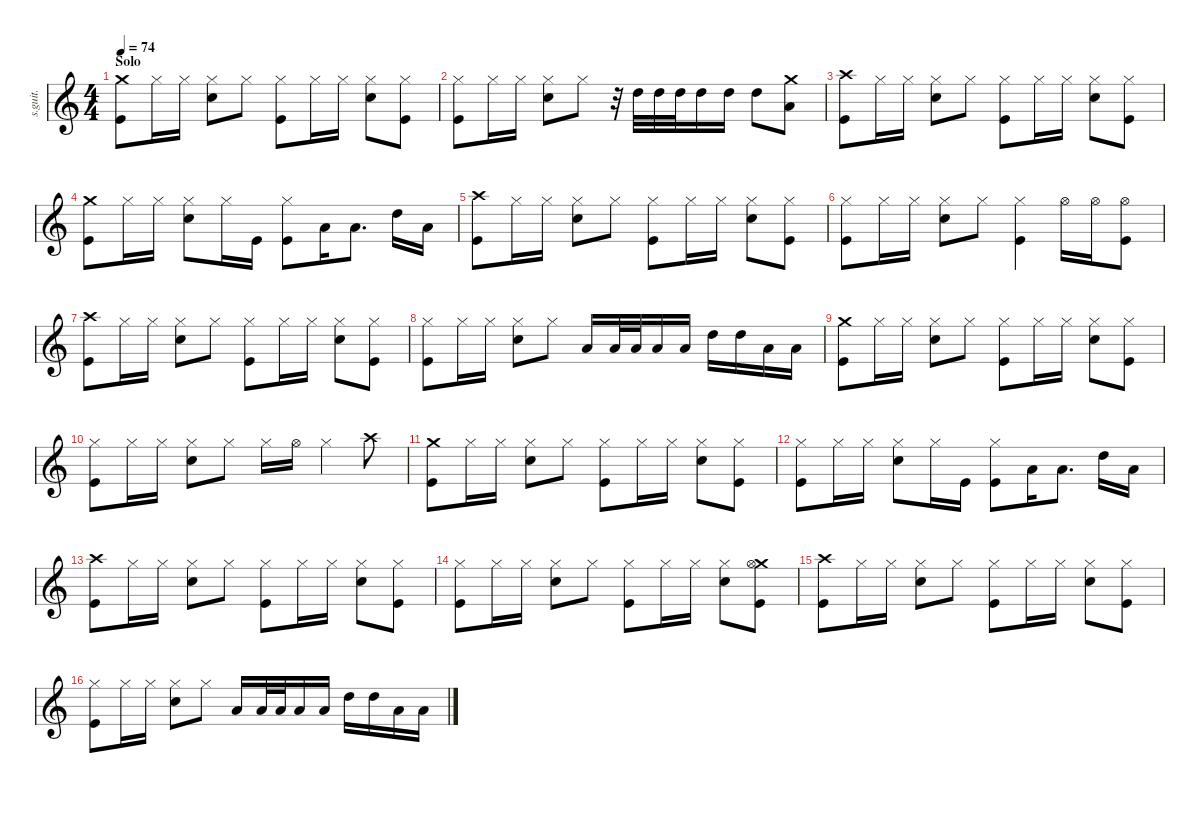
\defaultSystemsLayout 4
\hideDynamics
\bracketExtendMode nobrackets
\track ("Don Henley - Drums" "s.guit.") {instrument percussion}
\staff {score}
\articulation defaults
\ts (4 4)
\section ("" "Solo")
\tempo 74
\clef g2
\ks c
("Crash medium (hit)" "Kick (hit)").8{lyrics (0 "") lyrics (1 "") lyrics (2 "") lyrics (3 "") lyrics (4 "") dy f} "Hi-Hat (closed)".16{lyrics (0 "") lyrics (1 "") lyrics (2 "") lyrics (3 "") lyrics (4 "")} "Hi-Hat (closed)".16{lyrics (0 "") lyrics (1 "") lyrics (2 "") lyrics (3 "") lyrics (4 "")} ("Hi-Hat (closed)" "Snare (hit) 2").8{lyrics (0 "") lyrics (1 "") lyrics (2 "") lyrics (3 "") lyrics (4 "")} "Hi-Hat (closed)".8{lyrics (0 "") lyrics (1 "") lyrics (2 "") lyrics (3 "") lyrics (4 "")} ("Hi-Hat (closed)" "Kick (hit)").8{lyrics (0 "") lyrics (1 "") lyrics (2 "") lyrics (3 "") lyrics (4 "")} "Hi-Hat (closed)".16{lyrics (0 "") lyrics (1 "") lyrics (2 "") lyrics (3 "") lyrics (4 "")} "Hi-Hat (closed)".16{lyrics (0 "") lyrics (1 "") lyrics (2 "") lyrics (3 "") lyrics (4 "")} ("Hi-Hat (closed)" "Snare (hit) 2").8{lyrics (0 "") lyrics (1 "") lyrics (2 "") lyrics (3 "") lyrics (4 "")} ("Hi-Hat (closed)" "Kick (hit)").8{lyrics (0 "") lyrics (1 "") lyrics (2 "") lyrics (3 "") lyrics (4 "")} |
("Hi-Hat (closed)" "Kick (hit)").8{lyrics (0 "") lyrics (1 "") lyrics (2 "") lyrics (3 "") lyrics (4 "")} "Hi-Hat (closed)".16{lyrics (0 "") lyrics (1 "") lyrics (2 "") lyrics (3 "") lyrics (4 "")} "Hi-Hat (closed)".16{lyrics (0 "") lyrics (1 "") lyrics (2 "") lyrics (3 "") lyrics (4 "")} ("Hi-Hat (closed)" "Snare (hit) 2").8{lyrics (0 "") lyrics (1 "") lyrics (2 "") lyrics (3 "") lyrics (4 "")} "Hi-Hat (closed)".8{lyrics (0 "") lyrics (1 "") lyrics (2 "") lyrics (3 "") lyrics (4 "")} r.32 "High Tom (hit)".32{lyrics (0 "") lyrics (1 "") lyrics (2 "") lyrics (3 "") lyrics (4 "")} "High Tom (hit)".32{lyrics (0 "") lyrics (1 "") lyrics (2 "") lyrics (3 "") lyrics (4 "")} "High Tom (hit)".32{lyrics (0 "") lyrics (1 "") lyrics (2 "") lyrics (3 "") lyrics (4 "")} "High Tom (hit)".16{lyrics (0 "") lyrics (1 "") lyrics (2 "") lyrics (3 "") lyrics (4 "")} "High Tom (hit)".16{lyrics (0 "") lyrics (1 "") lyrics (2 "") lyrics (3 "") lyrics (4 "")} "High Tom (hit)".8{lyrics (0 "") lyrics (1 "") lyrics (2 "") lyrics (3 "") lyrics (4 "")} ("Crash medium (hit)" "Low Floor Tom (hit)").8{lyrics (0 "") lyrics (1 "") lyrics (2 "") lyrics (3 "") lyrics (4 "")} |
("Crash high (hit)" "Kick (hit)").8{lyrics (0 "") lyrics (1 "") lyrics (2 "") lyrics (3 "") lyrics (4 "")} "Hi-Hat (closed)".16{lyrics (0 "") lyrics (1 "") lyrics (2 "") lyrics (3 "") lyrics (4 "")} "Hi-Hat (closed)".16{lyrics (0 "") lyrics (1 "") lyrics (2 "") lyrics (3 "") lyrics (4 "")} ("Hi-Hat (closed)" "Snare (hit) 2").8{lyrics (0 "") lyrics (1 "") lyrics (2 "") lyrics (3 "") lyrics (4 "")} "Hi-Hat (closed)".8{lyrics (0 "") lyrics (1 "") lyrics (2 "") lyrics (3 "") lyrics (4 "")} ("Hi-Hat (closed)" "Kick (hit)").8{lyrics (0 "") lyrics (1 "") lyrics (2 "") lyrics (3 "") lyrics (4 "")} "Hi-Hat (closed)".16{lyrics (0 "") lyrics (1 "") lyrics (2 "") lyrics (3 "") lyrics (4 "")} "Hi-Hat (closed)".16{lyrics (0 "") lyrics (1 "") lyrics (2 "") lyrics (3 "") lyrics (4 "")} ("Hi-Hat (closed)" "Snare (hit) 2").8{lyrics (0 "") lyrics (1 "") lyrics (2 "") lyrics (3 "") lyrics (4 "")} ("Hi-Hat (closed)" "Kick (hit)").8{lyrics (0 "") lyrics (1 "") lyrics (2 "") lyrics (3 "") lyrics (4 "")} |
("Crash medium (hit)" "Kick (hit)").8{lyrics (0 "") lyrics (1 "") lyrics (2 "") lyrics (3 "") lyrics (4 "")} "Hi-Hat (closed)".16{lyrics (0 "") lyrics (1 "") lyrics (2 "") lyrics (3 "") lyrics (4 "")} "Hi-Hat (closed)".16{lyrics (0 "") lyrics (1 "") lyrics (2 "") lyrics (3 "") lyrics (4 "")} ("Hi-Hat (closed)" "Snare (hit) 2").8{lyrics (0 "") lyrics (1 "") lyrics (2 "") lyrics (3 "") lyrics (4 "")} "Hi-Hat (closed)".16{lyrics (0 "") lyrics (1 "") lyrics (2 "") lyrics (3 "") lyrics (4 "")} "Kick (hit)".16{lyrics (0 "") lyrics (1 "") lyrics (2 "") lyrics (3 "") lyrics (4 "")} ("Hi-Hat (closed)" "Kick (hit)").8{lyrics (0 "") lyrics (1 "") lyrics (2 "") lyrics (3 "") lyrics (4 "")} "Low Floor Tom (hit)".16{lyrics (0 "") lyrics (1 "") lyrics (2 "") lyrics (3 "") lyrics (4 "")} "Low Floor Tom (hit)".8{d lyrics (0 "") lyrics (1 "") lyrics (2 "") lyrics (3 "") lyrics (4 "")} "High Tom (hit)".16{lyrics (0 "") lyrics (1 "") lyrics (2 "") lyrics (3 "") lyrics (4 "")} "Low Floor Tom (hit)".16{lyrics (0 "") lyrics (1 "") lyrics (2 "") lyrics (3 "") lyrics (4 "")} |
("Crash high (hit)" "Kick (hit)").8{lyrics (0 "") lyrics (1 "") lyrics (2 "") lyrics (3 "") lyrics (4 "")} "Hi-Hat (closed)".16{lyrics (0 "") lyrics (1 "") lyrics (2 "") lyrics (3 "") lyrics (4 "")} "Hi-Hat (closed)".16{lyrics (0 "") lyrics (1 "") lyrics (2 "") lyrics (3 "") lyrics (4 "")} ("Hi-Hat (closed)" "Snare (hit) 2").8{lyrics (0 "") lyrics (1 "") lyrics (2 "") lyrics (3 "") lyrics (4 "")} "Hi-Hat (closed)".8{lyrics (0 "") lyrics (1 "") lyrics (2 "") lyrics (3 "") lyrics (4 "")} ("Hi-Hat (closed)" "Kick (hit)").8{lyrics (0 "") lyrics (1 "") lyrics (2 "") lyrics (3 "") lyrics (4 "")} "Hi-Hat (closed)".16{lyrics (0 "") lyrics (1 "") lyrics (2 "") lyrics (3 "") lyrics (4 "")} "Hi-Hat (closed)".16{lyrics (0 "") lyrics (1 "") lyrics (2 "") lyrics (3 "") lyrics (4 "")} ("Hi-Hat (closed)" "Snare (hit) 2").8{lyrics (0 "") lyrics (1 "") lyrics (2 "") lyrics (3 "") lyrics (4 "")} ("Hi-Hat (closed)" "Kick (hit)").8{lyrics (0 "") lyrics (1 "") lyrics (2 "") lyrics (3 "") lyrics (4 "")} |
("Hi-Hat (closed)" "Kick (hit)").8{lyrics (0 "") lyrics (1 "") lyrics (2 "") lyrics (3 "") lyrics (4 "")} "Hi-Hat (closed)".16{lyrics (0 "") lyrics (1 "") lyrics (2 "") lyrics (3 "") lyrics (4 "")} "Hi-Hat (closed)".16{lyrics (0 "") lyrics (1 "") lyrics (2 "") lyrics (3 "") lyrics (4 "")} ("Hi-Hat (closed)" "Snare (hit) 2").8{lyrics (0 "") lyrics (1 "") lyrics (2 "") lyrics (3 "") lyrics (4 "")} "Hi-Hat (closed)".8{lyrics (0 "") lyrics (1 "") lyrics (2 "") lyrics (3 "") lyrics (4 "")} ("Hi-Hat (closed)" "Kick (hit)").4{lyrics (0 "") lyrics (1 "") lyrics (2 "") lyrics (3 "") lyrics (4 "")} "Hi-Hat (open)".16{lyrics (0 "") lyrics (1 "") lyrics (2 "") lyrics (3 "") lyrics (4 "")} "Hi-Hat (open)".16{lyrics (0 "") lyrics (1 "") lyrics (2 "") lyrics (3 "") lyrics (4 "")} ("Hi-Hat (open)" "Kick (hit)").8{lyrics (0 "") lyrics (1 "") lyrics (2 "") lyrics (3 "") lyrics (4 "")} |
("Crash high (hit)" "Kick (hit)").8{lyrics (0 "") lyrics (1 "") lyrics (2 "") lyrics (3 "") lyrics (4 "")} "Hi-Hat (closed)".16{lyrics (0 "") lyrics (1 "") lyrics (2 "") lyrics (3 "") lyrics (4 "")} "Hi-Hat (closed)".16{lyrics (0 "") lyrics (1 "") lyrics (2 "") lyrics (3 "") lyrics (4 "")} ("Hi-Hat (closed)" "Snare (hit) 2").8{lyrics (0 "") lyrics (1 "") lyrics (2 "") lyrics (3 "") lyrics (4 "")} "Hi-Hat (closed)".8{lyrics (0 "") lyrics (1 "") lyrics (2 "") lyrics (3 "") lyrics (4 "")} ("Hi-Hat (closed)" "Kick (hit)").8{lyrics (0 "") lyrics (1 "") lyrics (2 "") lyrics (3 "") lyrics (4 "")} "Hi-Hat (closed)".16{lyrics (0 "") lyrics (1 "") lyrics (2 "") lyrics (3 "") lyrics (4 "")} "Hi-Hat (closed)".16{lyrics (0 "") lyrics (1 "") lyrics (2 "") lyrics (3 "") lyrics (4 "")} ("Hi-Hat (closed)" "Snare (hit) 2").8{lyrics (0 "") lyrics (1 "") lyrics (2 "") lyrics (3 "") lyrics (4 "")} ("Hi-Hat (closed)" "Kick (hit)").8{lyrics (0 "") lyrics (1 "") lyrics (2 "") lyrics (3 "") lyrics (4 "")} |
("Hi-Hat (closed)" "Kick (hit)").8{lyrics (0 "") lyrics (1 "") lyrics (2 "") lyrics (3 "") lyrics (4 "")} "Hi-Hat (closed)".16{lyrics (0 "") lyrics (1 "") lyrics (2 "") lyrics (3 "") lyrics (4 "")} "Hi-Hat (closed)".16{lyrics (0 "") lyrics (1 "") lyrics (2 "") lyrics (3 "") lyrics (4 "")} ("Hi-Hat (closed)" "Snare (hit) 2").8{lyrics (0 "") lyrics (1 "") lyrics (2 "") lyrics (3 "") lyrics (4 "")} "Hi-Hat (closed)".8{lyrics (0 "") lyrics (1 "") lyrics (2 "") lyrics (3 "") lyrics (4 "")} "Low Floor Tom (hit)".16{lyrics (0 "") lyrics (1 "") lyrics (2 "") lyrics (3 "") lyrics (4 "")} "Low Floor Tom (hit)".32{lyrics (0 "") lyrics (1 "") lyrics (2 "") lyrics (3 "") lyrics (4 "")} "Low Floor Tom (hit)".32{lyrics (0 "") lyrics (1 "") lyrics (2 "") lyrics (3 "") lyrics (4 "")} "Low Floor Tom (hit)".16{lyrics (0 "") lyrics (1 "") lyrics (2 "") lyrics (3 "") lyrics (4 "")} "Low Floor Tom (hit)".16{lyrics (0 "") lyrics (1 "") lyrics (2 "") lyrics (3 "") lyrics (4 "")} "High Tom (hit)".16{lyrics (0 "") lyrics (1 "") lyrics (2 "") lyrics (3 "") lyrics (4 "")} "High Tom (hit)".16{lyrics (0 "") lyrics (1 "") lyrics (2 "") lyrics (3 "") lyrics (4 "")} "Low Floor Tom (hit)".16{lyrics (0 "") lyrics (1 "") lyrics (2 "") lyrics (3 "") lyrics (4 "")} "Low Floor Tom (hit)".16{lyrics (0 "") lyrics (1 "") lyrics (2 "") lyrics (3 "") lyrics (4 "")} |
("Crash medium (hit)" "Kick (hit)").8{lyrics (0 "") lyrics (1 "") lyrics (2 "") lyrics (3 "") lyrics (4 "")} "Hi-Hat (closed)".16{lyrics (0 "") lyrics (1 "") lyrics (2 "") lyrics (3 "") lyrics (4 "")} "Hi-Hat (closed)".16{lyrics (0 "") lyrics (1 "") lyrics (2 "") lyrics (3 "") lyrics (4 "")} ("Hi-Hat (closed)" "Snare (hit) 2").8{lyrics (0 "") lyrics (1 "") lyrics (2 "") lyrics (3 "") lyrics (4 "")} "Hi-Hat (closed)".8{lyrics (0 "") lyrics (1 "") lyrics (2 "") lyrics (3 "") lyrics (4 "")} ("Hi-Hat (closed)" "Kick (hit)").8{lyrics (0 "") lyrics (1 "") lyrics (2 "") lyrics (3 "") lyrics (4 "")} "Hi-Hat (closed)".16{lyrics (0 "") lyrics (1 "") lyrics (2 "") lyrics (3 "") lyrics (4 "")} "Hi-Hat (closed)".16{lyrics (0 "") lyrics (1 "") lyrics (2 "") lyrics (3 "") lyrics (4 "")} ("Hi-Hat (closed)" "Snare (hit) 2").8{lyrics (0 "") lyrics (1 "") lyrics (2 "") lyrics (3 "") lyrics (4 "")} ("Hi-Hat (closed)" "Kick (hit)").8{lyrics (0 "") lyrics (1 "") lyrics (2 "") lyrics (3 "") lyrics (4 "")} |
("Hi-Hat (closed)" "Kick (hit)").8{lyrics (0 "") lyrics (1 "") lyrics (2 "") lyrics (3 "") lyrics (4 "")} "Hi-Hat (closed)".16{lyrics (0 "") lyrics (1 "") lyrics (2 "") lyrics (3 "") lyrics (4 "")} "Hi-Hat (closed)".16{lyrics (0 "") lyrics (1 "") lyrics (2 "") lyrics (3 "") lyrics (4 "")} ("Hi-Hat (closed)" "Snare (hit) 2").8{lyrics (0 "") lyrics (1 "") lyrics (2 "") lyrics (3 "") lyrics (4 "")} "Hi-Hat (closed)".8{lyrics (0 "") lyrics (1 "") lyrics (2 "") lyrics (3 "") lyrics (4 "")} "Hi-Hat (closed)".16{lyrics (0 "") lyrics (1 "") lyrics (2 "") lyrics (3 "") lyrics (4 "")} "Hi-Hat (open)".16{lyrics (0 "") lyrics (1 "") lyrics (2 "") lyrics (3 "") lyrics (4 "")} "Hi-Hat (closed)".4{lyrics (0 "") lyrics (1 "") lyrics (2 "") lyrics (3 "") lyrics (4 "")} "Crash high (hit)".8{lyrics (0 "") lyrics (1 "") lyrics (2 "") lyrics (3 "") lyrics (4 "")} |
("Crash medium (hit)" "Kick (hit)").8{lyrics (0 "") lyrics (1 "") lyrics (2 "") lyrics (3 "") lyrics (4 "")} "Hi-Hat (closed)".16{lyrics (0 "") lyrics (1 "") lyrics (2 "") lyrics (3 "") lyrics (4 "")} "Hi-Hat (closed)".16{lyrics (0 "") lyrics (1 "") lyrics (2 "") lyrics (3 "") lyrics (4 "")} ("Hi-Hat (closed)" "Snare (hit) 2").8{lyrics (0 "") lyrics (1 "") lyrics (2 "") lyrics (3 "") lyrics (4 "")} "Hi-Hat (closed)".8{lyrics (0 "") lyrics (1 "") lyrics (2 "") lyrics (3 "") lyrics (4 "")} ("Hi-Hat (closed)" "Kick (hit)").8{lyrics (0 "") lyrics (1 "") lyrics (2 "") lyrics (3 "") lyrics (4 "")} "Hi-Hat (closed)".16{lyrics (0 "") lyrics (1 "") lyrics (2 "") lyrics (3 "") lyrics (4 "")} "Hi-Hat (closed)".16{lyrics (0 "") lyrics (1 "") lyrics (2 "") lyrics (3 "") lyrics (4 "")} ("Hi-Hat (closed)" "Snare (hit) 2").8{lyrics (0 "") lyrics (1 "") lyrics (2 "") lyrics (3 "") lyrics (4 "")} ("Hi-Hat (closed)" "Kick (hit)").8{lyrics (0 "") lyrics (1 "") lyrics (2 "") lyrics (3 "") lyrics (4 "")} |
("Hi-Hat (closed)" "Kick (hit)").8{lyrics (0 "") lyrics (1 "") lyrics (2 "") lyrics (3 "") lyrics (4 "")} "Hi-Hat (closed)".16{lyrics (0 "") lyrics (1 "") lyrics (2 "") lyrics (3 "") lyrics (4 "")} "Hi-Hat (closed)".16{lyrics (0 "") lyrics (1 "") lyrics (2 "") lyrics (3 "") lyrics (4 "")} ("Hi-Hat (closed)" "Snare (hit) 2").8{lyrics (0 "") lyrics (1 "") lyrics (2 "") lyrics (3 "") lyrics (4 "")} "Hi-Hat (closed)".16{lyrics (0 "") lyrics (1 "") lyrics (2 "") lyrics (3 "") lyrics (4 "")} "Kick (hit)".16{lyrics (0 "") lyrics (1 "") lyrics (2 "") lyrics (3 "") lyrics (4 "")} ("Hi-Hat (closed)" "Kick (hit)").8{lyrics (0 "") lyrics (1 "") lyrics (2 "") lyrics (3 "") lyrics (4 "")} "Low Floor Tom (hit)".16{lyrics (0 "") lyrics (1 "") lyrics (2 "") lyrics (3 "") lyrics (4 "")} "Low Floor Tom (hit)".8{d lyrics (0 "") lyrics (1 "") lyrics (2 "") lyrics (3 "") lyrics (4 "")} "High Tom (hit)".16{lyrics (0 "") lyrics (1 "") lyrics (2 "") lyrics (3 "") lyrics (4 "")} "Low Floor Tom (hit)".16{lyrics (0 "") lyrics (1 "") lyrics (2 "") lyrics (3 "") lyrics (4 "")} |
("Crash high (hit)" "Kick (hit)").8{lyrics (0 "") lyrics (1 "") lyrics (2 "") lyrics (3 "") lyrics (4 "")} "Hi-Hat (closed)".16{lyrics (0 "") lyrics (1 "") lyrics (2 "") lyrics (3 "") lyrics (4 "")} "Hi-Hat (closed)".16{lyrics (0 "") lyrics (1 "") lyrics (2 "") lyrics (3 "") lyrics (4 "")} ("Hi-Hat (closed)" "Snare (hit) 2").8{lyrics (0 "") lyrics (1 "") lyrics (2 "") lyrics (3 "") lyrics (4 "")} "Hi-Hat (closed)".8{lyrics (0 "") lyrics (1 "") lyrics (2 "") lyrics (3 "") lyrics (4 "")} ("Hi-Hat (closed)" "Kick (hit)").8{lyrics (0 "") lyrics (1 "") lyrics (2 "") lyrics (3 "") lyrics (4 "")} "Hi-Hat (closed)".16{lyrics (0 "") lyrics (1 "") lyrics (2 "") lyrics (3 "") lyrics (4 "")} "Hi-Hat (closed)".16{lyrics (0 "") lyrics (1 "") lyrics (2 "") lyrics (3 "") lyrics (4 "")} ("Hi-Hat (closed)" "Snare (hit) 2").8{lyrics (0 "") lyrics (1 "") lyrics (2 "") lyrics (3 "") lyrics (4 "")} ("Hi-Hat (closed)" "Kick (hit)").8{lyrics (0 "") lyrics (1 "") lyrics (2 "") lyrics (3 "") lyrics (4 "")} |
("Hi-Hat (closed)" "Kick (hit)").8{lyrics (0 "") lyrics (1 "") lyrics (2 "") lyrics (3 "") lyrics (4 "")} "Hi-Hat (closed)".16{lyrics (0 "") lyrics (1 "") lyrics (2 "") lyrics (3 "") lyrics (4 "")} "Hi-Hat (closed)".16{lyrics (0 "") lyrics (1 "") lyrics (2 "") lyrics (3 "") lyrics (4 "")} ("Hi-Hat (closed)" "Snare (hit) 2").8{lyrics (0 "") lyrics (1 "") lyrics (2 "") lyrics (3 "") lyrics (4 "")} "Hi-Hat (closed)".8{lyrics (0 "") lyrics (1 "") lyrics (2 "") lyrics (3 "") lyrics (4 "")} ("Hi-Hat (closed)" "Kick (hit)").8{lyrics (0 "") lyrics (1 "") lyrics (2 "") lyrics (3 "") lyrics (4 "")} "Hi-Hat (closed)".16{lyrics (0 "") lyrics (1 "") lyrics (2 "") lyrics (3 "") lyrics (4 "")} "Hi-Hat (closed)".16{lyrics (0 "") lyrics (1 "") lyrics (2 "") lyrics (3 "") lyrics (4 "")} ("Hi-Hat (closed)" "Snare (hit) 2").8{lyrics (0 "") lyrics (1 "") lyrics (2 "") lyrics (3 "") lyrics (4 "")} ("Crash medium (hit)" "Hi-Hat (open)" "Kick (hit)").8{lyrics (0 "") lyrics (1 "") lyrics (2 "") lyrics (3 "") lyrics (4 "")} |
("Crash high (hit)" "Kick (hit)").8{lyrics (0 "") lyrics (1 "") lyrics (2 "") lyrics (3 "") lyrics (4 "")} "Hi-Hat (closed)".16{lyrics (0 "") lyrics (1 "") lyrics (2 "") lyrics (3 "") lyrics (4 "")} "Hi-Hat (closed)".16{lyrics (0 "") lyrics (1 "") lyrics (2 "") lyrics (3 "") lyrics (4 "")} ("Hi-Hat (closed)" "Snare (hit) 2").8{lyrics (0 "") lyrics (1 "") lyrics (2 "") lyrics (3 "") lyrics (4 "")} "Hi-Hat (closed)".8{lyrics (0 "") lyrics (1 "") lyrics (2 "") lyrics (3 "") lyrics (4 "")} ("Hi-Hat (closed)" "Kick (hit)").8{lyrics (0 "") lyrics (1 "") lyrics (2 "") lyrics (3 "") lyrics (4 "")} "Hi-Hat (closed)".16{lyrics (0 "") lyrics (1 "") lyrics (2 "") lyrics (3 "") lyrics (4 "")} "Hi-Hat (closed)".16{lyrics (0 "") lyrics (1 "") lyrics (2 "") lyrics (3 "") lyrics (4 "")} ("Hi-Hat (closed)" "Snare (hit) 2").8{lyrics (0 "") lyrics (1 "") lyrics (2 "") lyrics (3 "") lyrics (4 "")} ("Hi-Hat (closed)" "Kick (hit)").8{lyrics (0 "") lyrics (1 "") lyrics (2 "") lyrics (3 "") lyrics (4 "")} |
("Hi-Hat (closed)" "Kick (hit)").8{lyrics (0 "") lyrics (1 "") lyrics (2 "") lyrics (3 "") lyrics (4 "")} "Hi-Hat (closed)".16{lyrics (0 "") lyrics (1 "") lyrics (2 "") lyrics (3 "") lyrics (4 "")} "Hi-Hat (closed)".16{lyrics (0 "") lyrics (1 "") lyrics (2 "") lyrics (3 "") lyrics (4 "")} ("Hi-Hat (closed)" "Snare (hit) 2").8{lyrics (0 "") lyrics (1 "") lyrics (2 "") lyrics (3 "") lyrics (4 "")} "Hi-Hat (closed)".8{lyrics (0 "") lyrics (1 "") lyrics (2 "") lyrics (3 "") lyrics (4 "")} "Low Floor Tom (hit)".16{lyrics (0 "") lyrics (1 "") lyrics (2 "") lyrics (3 "") lyrics (4 "")} "Low Floor Tom (hit)".32{lyrics (0 "") lyrics (1 "") lyrics (2 "") lyrics (3 "") lyrics (4 "")} "Low Floor Tom (hit)".32{lyrics (0 "") lyrics (1 "") lyrics (2 "") lyrics (3 "") lyrics (4 "")} "Low Floor Tom (hit)".16{lyrics (0 "") lyrics (1 "") lyrics (2 "") lyrics (3 "") lyrics (4 "")} "Low Floor Tom (hit)".16{lyrics (0 "") lyrics (1 "") lyrics (2 "") lyrics (3 "") lyrics (4 "")} "High Tom (hit)".16{lyrics (0 "") lyrics (1 "") lyrics (2 "") lyrics (3 "") lyrics (4 "")} "High Tom (hit)".16{lyrics (0 "") lyrics (1 "") lyrics (2 "") lyrics (3 "") lyrics (4 "")} "Low Floor Tom (hit)".16{lyrics (0 "") lyrics (1 "") lyrics (2 "") lyrics (3 "") lyrics (4 "")} "Low Floor Tom (hit)".16{lyrics (0 "") lyrics (1 "") lyrics (2 "") lyrics (3 "") lyrics (4 "")}
